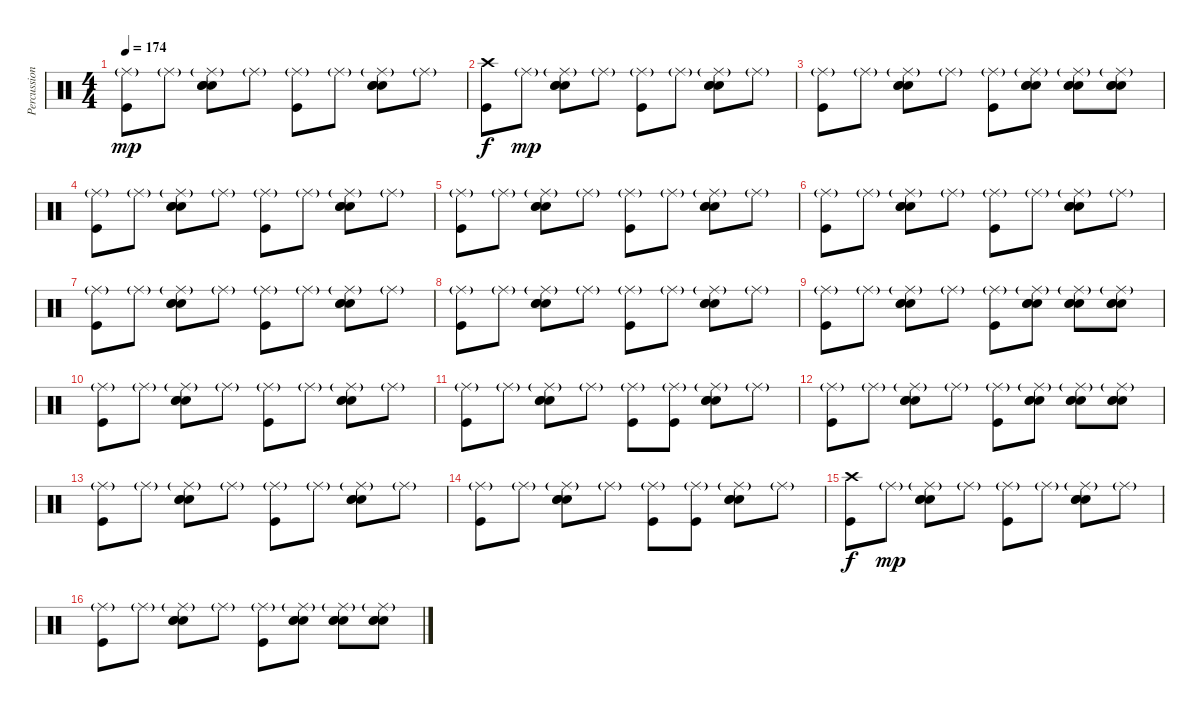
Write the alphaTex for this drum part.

\track ("Percussion" "Percussion") {instrument percussion}
\staff {score}
\articulation defaults
\ts (4 4)
\tempo 174
\clef neutral
\ks c
("Ride (middle)"{g} "Kick (hit)").8{dy mp} "Ride (middle)"{g}.8 ("Ride (middle)"{g} "Snare (hit) 2" "Electric Snare (hit)" "Electric Snare (hit)").8 "Ride (middle)"{g}.8 ("Ride (middle)"{g} "Kick (hit)").8 "Ride (middle)"{g}.8 ("Ride (middle)"{g} "Snare (hit) 2" "Electric Snare (hit)" "Electric Snare (hit)").8 "Ride (middle)"{g}.8 |
("Crash high (hit)" "Kick (hit)").8{dy f} "Ride (middle)"{g}.8{dy mp} ("Ride (middle)"{g} "Snare (hit) 2" "Electric Snare (hit)" "Electric Snare (hit)").8 "Ride (middle)"{g}.8 ("Ride (middle)"{g} "Kick (hit)").8 "Ride (middle)"{g}.8 ("Ride (middle)"{g} "Snare (hit) 2" "Electric Snare (hit)" "Electric Snare (hit)").8 "Ride (middle)"{g}.8 |
("Ride (middle)"{g} "Kick (hit)").8 "Ride (middle)"{g}.8 ("Ride (middle)"{g} "Snare (hit) 2" "Electric Snare (hit)" "Electric Snare (hit)").8 "Ride (middle)"{g}.8 ("Ride (middle)"{g} "Kick (hit)").8 ("Ride (middle)"{g} "Snare (hit) 2" "Electric Snare (hit)" "Electric Snare (hit)").8 ("Ride (middle)"{g} "Snare (hit) 2" "Electric Snare (hit)" "Electric Snare (hit)").8 ("Ride (middle)"{g} "Snare (hit) 2" "Electric Snare (hit)" "Electric Snare (hit)").8 |
("Ride (middle)"{g} "Kick (hit)").8 "Ride (middle)"{g}.8 ("Ride (middle)"{g} "Snare (hit) 2" "Electric Snare (hit)" "Electric Snare (hit)").8 "Ride (middle)"{g}.8 ("Ride (middle)"{g} "Kick (hit)").8 "Ride (middle)"{g}.8 ("Ride (middle)"{g} "Snare (hit) 2" "Electric Snare (hit)" "Electric Snare (hit)").8 "Ride (middle)"{g}.8 |
("Ride (middle)"{g} "Kick (hit)").8 "Ride (middle)"{g}.8 ("Ride (middle)"{g} "Snare (hit) 2" "Electric Snare (hit)" "Electric Snare (hit)").8 "Ride (middle)"{g}.8 ("Ride (middle)"{g} "Kick (hit)").8 "Ride (middle)"{g}.8 ("Ride (middle)"{g} "Snare (hit) 2" "Electric Snare (hit)" "Electric Snare (hit)").8 "Ride (middle)"{g}.8 |
("Ride (middle)"{g} "Kick (hit)").8 "Ride (middle)"{g}.8 ("Ride (middle)"{g} "Snare (hit) 2" "Electric Snare (hit)" "Electric Snare (hit)").8 "Ride (middle)"{g}.8 ("Ride (middle)"{g} "Kick (hit)").8 "Ride (middle)"{g}.8 ("Ride (middle)"{g} "Snare (hit) 2" "Electric Snare (hit)" "Electric Snare (hit)").8 "Ride (middle)"{g}.8 |
("Ride (middle)"{g} "Kick (hit)").8 "Ride (middle)"{g}.8 ("Ride (middle)"{g} "Snare (hit) 2" "Electric Snare (hit)" "Electric Snare (hit)").8 "Ride (middle)"{g}.8 ("Ride (middle)"{g} "Kick (hit)").8 "Ride (middle)"{g}.8 ("Ride (middle)"{g} "Snare (hit) 2" "Electric Snare (hit)" "Electric Snare (hit)").8 "Ride (middle)"{g}.8 |
("Ride (middle)"{g} "Kick (hit)").8 "Ride (middle)"{g}.8 ("Ride (middle)"{g} "Snare (hit) 2" "Electric Snare (hit)" "Electric Snare (hit)").8 "Ride (middle)"{g}.8 ("Ride (middle)"{g} "Kick (hit)").8 "Ride (middle)"{g}.8 ("Ride (middle)"{g} "Snare (hit) 2" "Electric Snare (hit)" "Electric Snare (hit)").8 "Ride (middle)"{g}.8 |
("Ride (middle)"{g} "Kick (hit)").8 "Ride (middle)"{g}.8 ("Ride (middle)"{g} "Snare (hit) 2" "Electric Snare (hit)" "Electric Snare (hit)").8 "Ride (middle)"{g}.8 ("Ride (middle)"{g} "Kick (hit)").8 ("Ride (middle)"{g} "Snare (hit) 2" "Electric Snare (hit)" "Electric Snare (hit)").8 ("Ride (middle)"{g} "Snare (hit) 2" "Electric Snare (hit)" "Electric Snare (hit)").8 ("Ride (middle)"{g} "Snare (hit) 2" "Electric Snare (hit)" "Electric Snare (hit)").8 |
("Ride (middle)"{g} "Kick (hit)").8 "Ride (middle)"{g}.8 ("Ride (middle)"{g} "Snare (hit) 2" "Electric Snare (hit)" "Electric Snare (hit)").8 "Ride (middle)"{g}.8 ("Ride (middle)"{g} "Kick (hit)").8 "Ride (middle)"{g}.8 ("Ride (middle)"{g} "Snare (hit) 2" "Electric Snare (hit)" "Electric Snare (hit)").8 "Ride (middle)"{g}.8 |
("Ride (middle)"{g} "Kick (hit)").8 "Ride (middle)"{g}.8 ("Ride (middle)"{g} "Snare (hit) 2" "Electric Snare (hit)" "Electric Snare (hit)").8 "Ride (middle)"{g}.8 ("Ride (middle)"{g} "Kick (hit)").8 ("Ride (middle)"{g} "Kick (hit)").8 ("Ride (middle)"{g} "Snare (hit) 2" "Electric Snare (hit)" "Electric Snare (hit)").8 "Ride (middle)"{g}.8 |
("Ride (middle)"{g} "Kick (hit)").8 "Ride (middle)"{g}.8 ("Ride (middle)"{g} "Snare (hit) 2" "Electric Snare (hit)" "Electric Snare (hit)").8 "Ride (middle)"{g}.8 ("Ride (middle)"{g} "Kick (hit)").8 ("Ride (middle)"{g} "Snare (hit) 2" "Electric Snare (hit)" "Electric Snare (hit)").8 ("Ride (middle)"{g} "Snare (hit) 2" "Electric Snare (hit)" "Electric Snare (hit)").8 ("Ride (middle)"{g} "Snare (hit) 2" "Electric Snare (hit)" "Electric Snare (hit)").8 |
("Ride (middle)"{g} "Kick (hit)").8 "Ride (middle)"{g}.8 ("Ride (middle)"{g} "Snare (hit) 2" "Electric Snare (hit)" "Electric Snare (hit)").8 "Ride (middle)"{g}.8 ("Ride (middle)"{g} "Kick (hit)").8 "Ride (middle)"{g}.8 ("Ride (middle)"{g} "Snare (hit) 2" "Electric Snare (hit)" "Electric Snare (hit)").8 "Ride (middle)"{g}.8 |
("Ride (middle)"{g} "Kick (hit)").8 "Ride (middle)"{g}.8 ("Ride (middle)"{g} "Snare (hit) 2" "Electric Snare (hit)" "Electric Snare (hit)").8 "Ride (middle)"{g}.8 ("Ride (middle)"{g} "Kick (hit)").8 ("Ride (middle)"{g} "Kick (hit)").8 ("Ride (middle)"{g} "Snare (hit) 2" "Electric Snare (hit)" "Electric Snare (hit)").8 "Ride (middle)"{g}.8 |
("Crash high (hit)" "Kick (hit)").8{dy f} "Ride (middle)"{g}.8{dy mp} ("Ride (middle)"{g} "Snare (hit) 2" "Electric Snare (hit)" "Electric Snare (hit)").8 "Ride (middle)"{g}.8 ("Ride (middle)"{g} "Kick (hit)").8 "Ride (middle)"{g}.8 ("Ride (middle)"{g} "Snare (hit) 2" "Electric Snare (hit)" "Electric Snare (hit)").8 "Ride (middle)"{g}.8 |
("Ride (middle)"{g} "Kick (hit)").8 "Ride (middle)"{g}.8 ("Ride (middle)"{g} "Snare (hit) 2" "Electric Snare (hit)" "Electric Snare (hit)").8 "Ride (middle)"{g}.8 ("Ride (middle)"{g} "Kick (hit)").8 ("Ride (middle)"{g} "Snare (hit) 2" "Electric Snare (hit)" "Electric Snare (hit)").8 ("Ride (middle)"{g} "Snare (hit) 2" "Electric Snare (hit)" "Electric Snare (hit)").8 ("Ride (middle)"{g} "Snare (hit) 2" "Electric Snare (hit)" "Electric Snare (hit)").8
